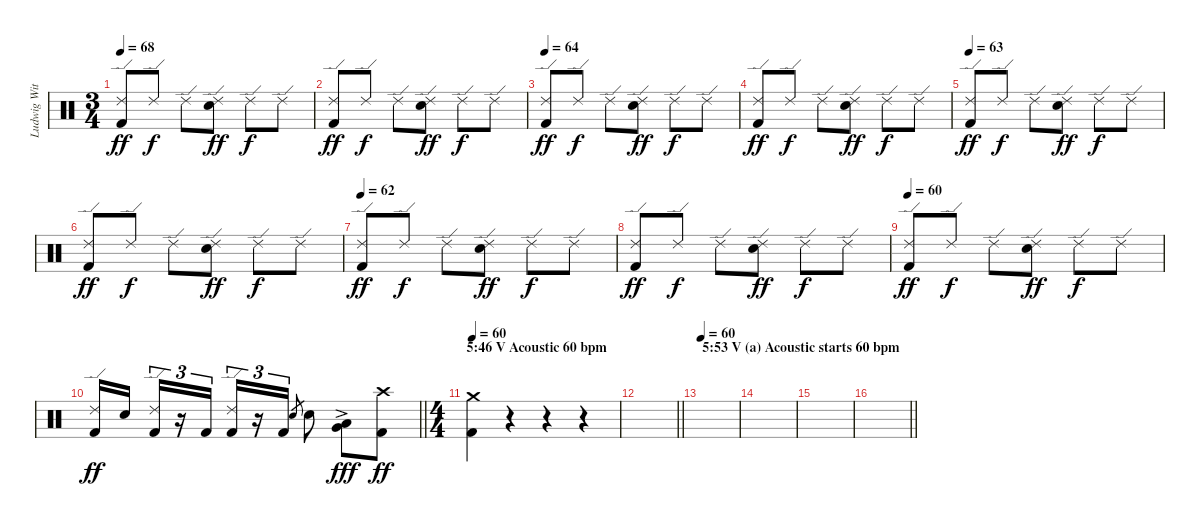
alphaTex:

\track ("Ludwig Witt (Drums)" "Ludwig Wit") {instrument percussion}
\staff
\articulation defaults
\ts (3 4)
\tempo 68
\clef neutral
\ks c
("Ride (edge) 2" "Kick (hit) 2").8{dy ff} "Ride (edge) 2".8{dy f} "Ride (edge) 2".8 ("Ride (edge) 2" "Electric Snare (hit)").8{dy ff} "Ride (edge) 2".8{dy f} "Ride (edge) 2".8 |
("Ride (edge) 2" "Kick (hit) 2").8{dy ff} "Ride (edge) 2".8{dy f} "Ride (edge) 2".8 ("Ride (edge) 2" "Electric Snare (hit)").8{dy ff} "Ride (edge) 2".8{dy f} "Ride (edge) 2".8 |
\tempo 64
("Ride (edge) 2" "Kick (hit) 2").8{dy ff} "Ride (edge) 2".8{dy f} "Ride (edge) 2".8 ("Ride (edge) 2" "Electric Snare (hit)").8{dy ff} "Ride (edge) 2".8{dy f} "Ride (edge) 2".8 |
("Ride (edge) 2" "Kick (hit) 2").8{dy ff} "Ride (edge) 2".8{dy f} "Ride (edge) 2".8 ("Ride (edge) 2" "Electric Snare (hit)").8{dy ff} "Ride (edge) 2".8{dy f} "Ride (edge) 2".8 |
\tempo 63
("Ride (edge) 2" "Kick (hit) 2").8{dy ff} "Ride (edge) 2".8{dy f} "Ride (edge) 2".8 ("Ride (edge) 2" "Electric Snare (hit)").8{dy ff} "Ride (edge) 2".8{dy f} "Ride (edge) 2".8 |
("Ride (edge) 2" "Kick (hit) 2").8{dy ff} "Ride (edge) 2".8{dy f} "Ride (edge) 2".8 ("Ride (edge) 2" "Electric Snare (hit)").8{dy ff} "Ride (edge) 2".8{dy f} "Ride (edge) 2".8 |
\tempo 62
("Ride (edge) 2" "Kick (hit) 2").8{dy ff} "Ride (edge) 2".8{dy f} "Ride (edge) 2".8 ("Ride (edge) 2" "Electric Snare (hit)").8{dy ff} "Ride (edge) 2".8{dy f} "Ride (edge) 2".8 |
("Ride (edge) 2" "Kick (hit) 2").8{dy ff} "Ride (edge) 2".8{dy f} "Ride (edge) 2".8 ("Ride (edge) 2" "Electric Snare (hit)").8{dy ff} "Ride (edge) 2".8{dy f} "Ride (edge) 2".8 |
\tempo 60
("Ride (edge) 2" "Kick (hit) 2").8{dy ff} "Ride (edge) 2".8{dy f} "Ride (edge) 2".8 ("Ride (edge) 2" "Electric Snare (hit)").8{dy ff} "Ride (edge) 2".8{dy f} "Ride (edge) 2".8 |
\barLineRight lightlight
("Ride (edge) 2" "Kick (hit) 2").16{dy ff} "Electric Snare (hit)".16{beam splitsecondary} ("Ride (edge) 2" "Kick (hit) 2").16{tu (3 2)} r.16{tu (3 2)} "Kick (hit) 2".16{tu (3 2)} ("Ride (edge) 2" "Kick (hit) 2").16{tu (3 2)} r.16{tu (3 2)} "Kick (hit) 2".16{tu (3 2)} "Electric Snare (hit)".8{gr} "Electric Snare (hit)".8 ("Low Tom (hit)" "Very Low Tom (hit)"{ac}).8{dy fff} ("Crash high (hit)" "Kick (hit) 2").8{dy ff} |
\ts (4 4)
\section ("" "5:46 V Acoustic 60 bpm")
\tempo 60
("Crash medium (hit)" "Kick (hit) 2").4 r.4 r.4 r.4 |
\barLineRight lightlight
|
\section ("" "5:53 V (a) Acoustic starts 60 bpm")
\tempo 60
|
|
|
\barLineRight lightlight
